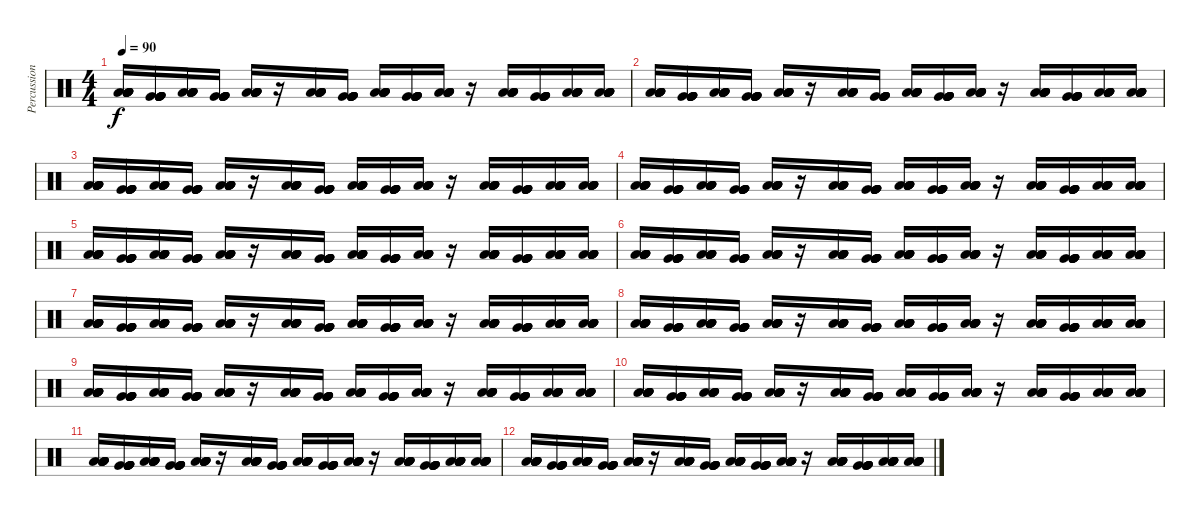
\track ("Percussion 2" "Percussion") {instrument percussion}
\staff {score}
\articulation defaults
\ts (4 4)
\tempo 90
\clef neutral
\ks c
("Low Floor Tom (hit)" "Low Floor Tom (hit)" "Low Floor Tom (hit)" "Low Floor Tom (hit)" "Low Floor Tom (hit)" "Low Floor Tom (hit)").16{dy f} ("Very Low Tom (hit)" "Very Low Tom (hit)" "Very Low Tom (hit)" "Very Low Tom (hit)" "Very Low Tom (hit)" "Very Low Tom (hit)").16 ("Low Floor Tom (hit)" "Low Floor Tom (hit)" "Low Floor Tom (hit)" "Low Floor Tom (hit)" "Low Floor Tom (hit)" "Low Floor Tom (hit)").16 ("Very Low Tom (hit)" "Very Low Tom (hit)" "Very Low Tom (hit)" "Very Low Tom (hit)" "Very Low Tom (hit)" "Very Low Tom (hit)").16 ("Low Floor Tom (hit)" "Low Floor Tom (hit)" "Low Floor Tom (hit)" "Low Floor Tom (hit)" "Low Floor Tom (hit)" "Low Floor Tom (hit)").16 r.16 ("Low Floor Tom (hit)" "Low Floor Tom (hit)" "Low Floor Tom (hit)" "Low Floor Tom (hit)" "Low Floor Tom (hit)" "Low Floor Tom (hit)").16 ("Very Low Tom (hit)" "Very Low Tom (hit)" "Very Low Tom (hit)" "Very Low Tom (hit)" "Very Low Tom (hit)" "Very Low Tom (hit)").16 ("Low Floor Tom (hit)" "Low Floor Tom (hit)" "Low Floor Tom (hit)" "Low Floor Tom (hit)" "Low Floor Tom (hit)" "Low Floor Tom (hit)").16 ("Very Low Tom (hit)" "Very Low Tom (hit)" "Very Low Tom (hit)" "Very Low Tom (hit)" "Very Low Tom (hit)" "Very Low Tom (hit)").16 ("Low Floor Tom (hit)" "Low Floor Tom (hit)" "Low Floor Tom (hit)" "Low Floor Tom (hit)" "Low Floor Tom (hit)" "Low Floor Tom (hit)").16 r.16 ("Low Floor Tom (hit)" "Low Floor Tom (hit)" "Low Floor Tom (hit)" "Low Floor Tom (hit)" "Low Floor Tom (hit)" "Low Floor Tom (hit)").16 ("Very Low Tom (hit)" "Very Low Tom (hit)" "Very Low Tom (hit)" "Very Low Tom (hit)" "Very Low Tom (hit)" "Very Low Tom (hit)").16 ("Low Floor Tom (hit)" "Low Floor Tom (hit)" "Low Floor Tom (hit)" "Low Floor Tom (hit)" "Low Floor Tom (hit)" "Low Floor Tom (hit)").16 ("Low Floor Tom (hit)" "Low Floor Tom (hit)" "Low Floor Tom (hit)" "Low Floor Tom (hit)" "Low Floor Tom (hit)" "Low Floor Tom (hit)").16 |
("Low Floor Tom (hit)" "Low Floor Tom (hit)" "Low Floor Tom (hit)" "Low Floor Tom (hit)" "Low Floor Tom (hit)" "Low Floor Tom (hit)").16 ("Very Low Tom (hit)" "Very Low Tom (hit)" "Very Low Tom (hit)" "Very Low Tom (hit)" "Very Low Tom (hit)" "Very Low Tom (hit)").16 ("Low Floor Tom (hit)" "Low Floor Tom (hit)" "Low Floor Tom (hit)" "Low Floor Tom (hit)" "Low Floor Tom (hit)" "Low Floor Tom (hit)").16 ("Very Low Tom (hit)" "Very Low Tom (hit)" "Very Low Tom (hit)" "Very Low Tom (hit)" "Very Low Tom (hit)" "Very Low Tom (hit)").16 ("Low Floor Tom (hit)" "Low Floor Tom (hit)" "Low Floor Tom (hit)" "Low Floor Tom (hit)" "Low Floor Tom (hit)" "Low Floor Tom (hit)").16 r.16 ("Low Floor Tom (hit)" "Low Floor Tom (hit)" "Low Floor Tom (hit)" "Low Floor Tom (hit)" "Low Floor Tom (hit)" "Low Floor Tom (hit)").16 ("Very Low Tom (hit)" "Very Low Tom (hit)" "Very Low Tom (hit)" "Very Low Tom (hit)" "Very Low Tom (hit)" "Very Low Tom (hit)").16 ("Low Floor Tom (hit)" "Low Floor Tom (hit)" "Low Floor Tom (hit)" "Low Floor Tom (hit)" "Low Floor Tom (hit)" "Low Floor Tom (hit)").16 ("Very Low Tom (hit)" "Very Low Tom (hit)" "Very Low Tom (hit)" "Very Low Tom (hit)" "Very Low Tom (hit)" "Very Low Tom (hit)").16 ("Low Floor Tom (hit)" "Low Floor Tom (hit)" "Low Floor Tom (hit)" "Low Floor Tom (hit)" "Low Floor Tom (hit)" "Low Floor Tom (hit)").16 r.16 ("Low Floor Tom (hit)" "Low Floor Tom (hit)" "Low Floor Tom (hit)" "Low Floor Tom (hit)" "Low Floor Tom (hit)" "Low Floor Tom (hit)").16 ("Very Low Tom (hit)" "Very Low Tom (hit)" "Very Low Tom (hit)" "Very Low Tom (hit)" "Very Low Tom (hit)" "Very Low Tom (hit)").16 ("Low Floor Tom (hit)" "Low Floor Tom (hit)" "Low Floor Tom (hit)" "Low Floor Tom (hit)" "Low Floor Tom (hit)" "Low Floor Tom (hit)").16 ("Low Floor Tom (hit)" "Low Floor Tom (hit)" "Low Floor Tom (hit)" "Low Floor Tom (hit)" "Low Floor Tom (hit)" "Low Floor Tom (hit)").16 |
("Low Floor Tom (hit)" "Low Floor Tom (hit)" "Low Floor Tom (hit)" "Low Floor Tom (hit)" "Low Floor Tom (hit)" "Low Floor Tom (hit)").16 ("Very Low Tom (hit)" "Very Low Tom (hit)" "Very Low Tom (hit)" "Very Low Tom (hit)" "Very Low Tom (hit)" "Very Low Tom (hit)").16 ("Low Floor Tom (hit)" "Low Floor Tom (hit)" "Low Floor Tom (hit)" "Low Floor Tom (hit)" "Low Floor Tom (hit)" "Low Floor Tom (hit)").16 ("Very Low Tom (hit)" "Very Low Tom (hit)" "Very Low Tom (hit)" "Very Low Tom (hit)" "Very Low Tom (hit)" "Very Low Tom (hit)").16 ("Low Floor Tom (hit)" "Low Floor Tom (hit)" "Low Floor Tom (hit)" "Low Floor Tom (hit)" "Low Floor Tom (hit)" "Low Floor Tom (hit)").16 r.16 ("Low Floor Tom (hit)" "Low Floor Tom (hit)" "Low Floor Tom (hit)" "Low Floor Tom (hit)" "Low Floor Tom (hit)" "Low Floor Tom (hit)").16 ("Very Low Tom (hit)" "Very Low Tom (hit)" "Very Low Tom (hit)" "Very Low Tom (hit)" "Very Low Tom (hit)" "Very Low Tom (hit)").16 ("Low Floor Tom (hit)" "Low Floor Tom (hit)" "Low Floor Tom (hit)" "Low Floor Tom (hit)" "Low Floor Tom (hit)" "Low Floor Tom (hit)").16 ("Very Low Tom (hit)" "Very Low Tom (hit)" "Very Low Tom (hit)" "Very Low Tom (hit)" "Very Low Tom (hit)" "Very Low Tom (hit)").16 ("Low Floor Tom (hit)" "Low Floor Tom (hit)" "Low Floor Tom (hit)" "Low Floor Tom (hit)" "Low Floor Tom (hit)" "Low Floor Tom (hit)").16 r.16 ("Low Floor Tom (hit)" "Low Floor Tom (hit)" "Low Floor Tom (hit)" "Low Floor Tom (hit)" "Low Floor Tom (hit)" "Low Floor Tom (hit)").16 ("Very Low Tom (hit)" "Very Low Tom (hit)" "Very Low Tom (hit)" "Very Low Tom (hit)" "Very Low Tom (hit)" "Very Low Tom (hit)").16 ("Low Floor Tom (hit)" "Low Floor Tom (hit)" "Low Floor Tom (hit)" "Low Floor Tom (hit)" "Low Floor Tom (hit)" "Low Floor Tom (hit)").16 ("Low Floor Tom (hit)" "Low Floor Tom (hit)" "Low Floor Tom (hit)" "Low Floor Tom (hit)" "Low Floor Tom (hit)" "Low Floor Tom (hit)").16 |
("Low Floor Tom (hit)" "Low Floor Tom (hit)" "Low Floor Tom (hit)" "Low Floor Tom (hit)" "Low Floor Tom (hit)" "Low Floor Tom (hit)").16 ("Very Low Tom (hit)" "Very Low Tom (hit)" "Very Low Tom (hit)" "Very Low Tom (hit)" "Very Low Tom (hit)" "Very Low Tom (hit)").16 ("Low Floor Tom (hit)" "Low Floor Tom (hit)" "Low Floor Tom (hit)" "Low Floor Tom (hit)" "Low Floor Tom (hit)" "Low Floor Tom (hit)").16 ("Very Low Tom (hit)" "Very Low Tom (hit)" "Very Low Tom (hit)" "Very Low Tom (hit)" "Very Low Tom (hit)" "Very Low Tom (hit)").16 ("Low Floor Tom (hit)" "Low Floor Tom (hit)" "Low Floor Tom (hit)" "Low Floor Tom (hit)" "Low Floor Tom (hit)" "Low Floor Tom (hit)").16 r.16 ("Low Floor Tom (hit)" "Low Floor Tom (hit)" "Low Floor Tom (hit)" "Low Floor Tom (hit)" "Low Floor Tom (hit)" "Low Floor Tom (hit)").16 ("Very Low Tom (hit)" "Very Low Tom (hit)" "Very Low Tom (hit)" "Very Low Tom (hit)" "Very Low Tom (hit)" "Very Low Tom (hit)").16 ("Low Floor Tom (hit)" "Low Floor Tom (hit)" "Low Floor Tom (hit)" "Low Floor Tom (hit)" "Low Floor Tom (hit)" "Low Floor Tom (hit)").16 ("Very Low Tom (hit)" "Very Low Tom (hit)" "Very Low Tom (hit)" "Very Low Tom (hit)" "Very Low Tom (hit)" "Very Low Tom (hit)").16 ("Low Floor Tom (hit)" "Low Floor Tom (hit)" "Low Floor Tom (hit)" "Low Floor Tom (hit)" "Low Floor Tom (hit)" "Low Floor Tom (hit)").16 r.16 ("Low Floor Tom (hit)" "Low Floor Tom (hit)" "Low Floor Tom (hit)" "Low Floor Tom (hit)" "Low Floor Tom (hit)" "Low Floor Tom (hit)").16 ("Very Low Tom (hit)" "Very Low Tom (hit)" "Very Low Tom (hit)" "Very Low Tom (hit)" "Very Low Tom (hit)" "Very Low Tom (hit)").16 ("Low Floor Tom (hit)" "Low Floor Tom (hit)" "Low Floor Tom (hit)" "Low Floor Tom (hit)" "Low Floor Tom (hit)" "Low Floor Tom (hit)").16 ("Low Floor Tom (hit)" "Low Floor Tom (hit)" "Low Floor Tom (hit)" "Low Floor Tom (hit)" "Low Floor Tom (hit)" "Low Floor Tom (hit)").16 |
("Low Floor Tom (hit)" "Low Floor Tom (hit)" "Low Floor Tom (hit)" "Low Floor Tom (hit)" "Low Floor Tom (hit)" "Low Floor Tom (hit)").16 ("Very Low Tom (hit)" "Very Low Tom (hit)" "Very Low Tom (hit)" "Very Low Tom (hit)" "Very Low Tom (hit)" "Very Low Tom (hit)").16 ("Low Floor Tom (hit)" "Low Floor Tom (hit)" "Low Floor Tom (hit)" "Low Floor Tom (hit)" "Low Floor Tom (hit)" "Low Floor Tom (hit)").16 ("Very Low Tom (hit)" "Very Low Tom (hit)" "Very Low Tom (hit)" "Very Low Tom (hit)" "Very Low Tom (hit)" "Very Low Tom (hit)").16 ("Low Floor Tom (hit)" "Low Floor Tom (hit)" "Low Floor Tom (hit)" "Low Floor Tom (hit)" "Low Floor Tom (hit)" "Low Floor Tom (hit)").16 r.16 ("Low Floor Tom (hit)" "Low Floor Tom (hit)" "Low Floor Tom (hit)" "Low Floor Tom (hit)" "Low Floor Tom (hit)" "Low Floor Tom (hit)").16 ("Very Low Tom (hit)" "Very Low Tom (hit)" "Very Low Tom (hit)" "Very Low Tom (hit)" "Very Low Tom (hit)" "Very Low Tom (hit)").16 ("Low Floor Tom (hit)" "Low Floor Tom (hit)" "Low Floor Tom (hit)" "Low Floor Tom (hit)" "Low Floor Tom (hit)" "Low Floor Tom (hit)").16 ("Very Low Tom (hit)" "Very Low Tom (hit)" "Very Low Tom (hit)" "Very Low Tom (hit)" "Very Low Tom (hit)" "Very Low Tom (hit)").16 ("Low Floor Tom (hit)" "Low Floor Tom (hit)" "Low Floor Tom (hit)" "Low Floor Tom (hit)" "Low Floor Tom (hit)" "Low Floor Tom (hit)").16 r.16 ("Low Floor Tom (hit)" "Low Floor Tom (hit)" "Low Floor Tom (hit)" "Low Floor Tom (hit)" "Low Floor Tom (hit)" "Low Floor Tom (hit)").16 ("Very Low Tom (hit)" "Very Low Tom (hit)" "Very Low Tom (hit)" "Very Low Tom (hit)" "Very Low Tom (hit)" "Very Low Tom (hit)").16 ("Low Floor Tom (hit)" "Low Floor Tom (hit)" "Low Floor Tom (hit)" "Low Floor Tom (hit)" "Low Floor Tom (hit)" "Low Floor Tom (hit)").16 ("Low Floor Tom (hit)" "Low Floor Tom (hit)" "Low Floor Tom (hit)" "Low Floor Tom (hit)" "Low Floor Tom (hit)" "Low Floor Tom (hit)").16 |
("Low Floor Tom (hit)" "Low Floor Tom (hit)" "Low Floor Tom (hit)" "Low Floor Tom (hit)" "Low Floor Tom (hit)" "Low Floor Tom (hit)").16 ("Very Low Tom (hit)" "Very Low Tom (hit)" "Very Low Tom (hit)" "Very Low Tom (hit)" "Very Low Tom (hit)" "Very Low Tom (hit)").16 ("Low Floor Tom (hit)" "Low Floor Tom (hit)" "Low Floor Tom (hit)" "Low Floor Tom (hit)" "Low Floor Tom (hit)" "Low Floor Tom (hit)").16 ("Very Low Tom (hit)" "Very Low Tom (hit)" "Very Low Tom (hit)" "Very Low Tom (hit)" "Very Low Tom (hit)" "Very Low Tom (hit)").16 ("Low Floor Tom (hit)" "Low Floor Tom (hit)" "Low Floor Tom (hit)" "Low Floor Tom (hit)" "Low Floor Tom (hit)" "Low Floor Tom (hit)").16 r.16 ("Low Floor Tom (hit)" "Low Floor Tom (hit)" "Low Floor Tom (hit)" "Low Floor Tom (hit)" "Low Floor Tom (hit)" "Low Floor Tom (hit)").16 ("Very Low Tom (hit)" "Very Low Tom (hit)" "Very Low Tom (hit)" "Very Low Tom (hit)" "Very Low Tom (hit)" "Very Low Tom (hit)").16 ("Low Floor Tom (hit)" "Low Floor Tom (hit)" "Low Floor Tom (hit)" "Low Floor Tom (hit)" "Low Floor Tom (hit)" "Low Floor Tom (hit)").16 ("Very Low Tom (hit)" "Very Low Tom (hit)" "Very Low Tom (hit)" "Very Low Tom (hit)" "Very Low Tom (hit)" "Very Low Tom (hit)").16 ("Low Floor Tom (hit)" "Low Floor Tom (hit)" "Low Floor Tom (hit)" "Low Floor Tom (hit)" "Low Floor Tom (hit)" "Low Floor Tom (hit)").16 r.16 ("Low Floor Tom (hit)" "Low Floor Tom (hit)" "Low Floor Tom (hit)" "Low Floor Tom (hit)" "Low Floor Tom (hit)" "Low Floor Tom (hit)").16 ("Very Low Tom (hit)" "Very Low Tom (hit)" "Very Low Tom (hit)" "Very Low Tom (hit)" "Very Low Tom (hit)" "Very Low Tom (hit)").16 ("Low Floor Tom (hit)" "Low Floor Tom (hit)" "Low Floor Tom (hit)" "Low Floor Tom (hit)" "Low Floor Tom (hit)" "Low Floor Tom (hit)").16 ("Low Floor Tom (hit)" "Low Floor Tom (hit)" "Low Floor Tom (hit)" "Low Floor Tom (hit)" "Low Floor Tom (hit)" "Low Floor Tom (hit)").16 |
("Low Floor Tom (hit)" "Low Floor Tom (hit)" "Low Floor Tom (hit)" "Low Floor Tom (hit)" "Low Floor Tom (hit)" "Low Floor Tom (hit)").16 ("Very Low Tom (hit)" "Very Low Tom (hit)" "Very Low Tom (hit)" "Very Low Tom (hit)" "Very Low Tom (hit)" "Very Low Tom (hit)").16 ("Low Floor Tom (hit)" "Low Floor Tom (hit)" "Low Floor Tom (hit)" "Low Floor Tom (hit)" "Low Floor Tom (hit)" "Low Floor Tom (hit)").16 ("Very Low Tom (hit)" "Very Low Tom (hit)" "Very Low Tom (hit)" "Very Low Tom (hit)" "Very Low Tom (hit)" "Very Low Tom (hit)").16 ("Low Floor Tom (hit)" "Low Floor Tom (hit)" "Low Floor Tom (hit)" "Low Floor Tom (hit)" "Low Floor Tom (hit)" "Low Floor Tom (hit)").16 r.16 ("Low Floor Tom (hit)" "Low Floor Tom (hit)" "Low Floor Tom (hit)" "Low Floor Tom (hit)" "Low Floor Tom (hit)" "Low Floor Tom (hit)").16 ("Very Low Tom (hit)" "Very Low Tom (hit)" "Very Low Tom (hit)" "Very Low Tom (hit)" "Very Low Tom (hit)" "Very Low Tom (hit)").16 ("Low Floor Tom (hit)" "Low Floor Tom (hit)" "Low Floor Tom (hit)" "Low Floor Tom (hit)" "Low Floor Tom (hit)" "Low Floor Tom (hit)").16 ("Very Low Tom (hit)" "Very Low Tom (hit)" "Very Low Tom (hit)" "Very Low Tom (hit)" "Very Low Tom (hit)" "Very Low Tom (hit)").16 ("Low Floor Tom (hit)" "Low Floor Tom (hit)" "Low Floor Tom (hit)" "Low Floor Tom (hit)" "Low Floor Tom (hit)" "Low Floor Tom (hit)").16 r.16 ("Low Floor Tom (hit)" "Low Floor Tom (hit)" "Low Floor Tom (hit)" "Low Floor Tom (hit)" "Low Floor Tom (hit)" "Low Floor Tom (hit)").16 ("Very Low Tom (hit)" "Very Low Tom (hit)" "Very Low Tom (hit)" "Very Low Tom (hit)" "Very Low Tom (hit)" "Very Low Tom (hit)").16 ("Low Floor Tom (hit)" "Low Floor Tom (hit)" "Low Floor Tom (hit)" "Low Floor Tom (hit)" "Low Floor Tom (hit)" "Low Floor Tom (hit)").16 ("Low Floor Tom (hit)" "Low Floor Tom (hit)" "Low Floor Tom (hit)" "Low Floor Tom (hit)" "Low Floor Tom (hit)" "Low Floor Tom (hit)").16 |
("Low Floor Tom (hit)" "Low Floor Tom (hit)" "Low Floor Tom (hit)" "Low Floor Tom (hit)" "Low Floor Tom (hit)" "Low Floor Tom (hit)").16 ("Very Low Tom (hit)" "Very Low Tom (hit)" "Very Low Tom (hit)" "Very Low Tom (hit)" "Very Low Tom (hit)" "Very Low Tom (hit)").16 ("Low Floor Tom (hit)" "Low Floor Tom (hit)" "Low Floor Tom (hit)" "Low Floor Tom (hit)" "Low Floor Tom (hit)" "Low Floor Tom (hit)").16 ("Very Low Tom (hit)" "Very Low Tom (hit)" "Very Low Tom (hit)" "Very Low Tom (hit)" "Very Low Tom (hit)" "Very Low Tom (hit)").16 ("Low Floor Tom (hit)" "Low Floor Tom (hit)" "Low Floor Tom (hit)" "Low Floor Tom (hit)" "Low Floor Tom (hit)" "Low Floor Tom (hit)").16 r.16 ("Low Floor Tom (hit)" "Low Floor Tom (hit)" "Low Floor Tom (hit)" "Low Floor Tom (hit)" "Low Floor Tom (hit)" "Low Floor Tom (hit)").16 ("Very Low Tom (hit)" "Very Low Tom (hit)" "Very Low Tom (hit)" "Very Low Tom (hit)" "Very Low Tom (hit)" "Very Low Tom (hit)").16 ("Low Floor Tom (hit)" "Low Floor Tom (hit)" "Low Floor Tom (hit)" "Low Floor Tom (hit)" "Low Floor Tom (hit)" "Low Floor Tom (hit)").16 ("Very Low Tom (hit)" "Very Low Tom (hit)" "Very Low Tom (hit)" "Very Low Tom (hit)" "Very Low Tom (hit)" "Very Low Tom (hit)").16 ("Low Floor Tom (hit)" "Low Floor Tom (hit)" "Low Floor Tom (hit)" "Low Floor Tom (hit)" "Low Floor Tom (hit)" "Low Floor Tom (hit)").16 r.16 ("Low Floor Tom (hit)" "Low Floor Tom (hit)" "Low Floor Tom (hit)" "Low Floor Tom (hit)" "Low Floor Tom (hit)" "Low Floor Tom (hit)").16 ("Very Low Tom (hit)" "Very Low Tom (hit)" "Very Low Tom (hit)" "Very Low Tom (hit)" "Very Low Tom (hit)" "Very Low Tom (hit)").16 ("Low Floor Tom (hit)" "Low Floor Tom (hit)" "Low Floor Tom (hit)" "Low Floor Tom (hit)" "Low Floor Tom (hit)" "Low Floor Tom (hit)").16 ("Low Floor Tom (hit)" "Low Floor Tom (hit)" "Low Floor Tom (hit)" "Low Floor Tom (hit)" "Low Floor Tom (hit)" "Low Floor Tom (hit)").16 |
("Low Floor Tom (hit)" "Low Floor Tom (hit)" "Low Floor Tom (hit)" "Low Floor Tom (hit)" "Low Floor Tom (hit)" "Low Floor Tom (hit)").16 ("Very Low Tom (hit)" "Very Low Tom (hit)" "Very Low Tom (hit)" "Very Low Tom (hit)" "Very Low Tom (hit)" "Very Low Tom (hit)").16 ("Low Floor Tom (hit)" "Low Floor Tom (hit)" "Low Floor Tom (hit)" "Low Floor Tom (hit)" "Low Floor Tom (hit)" "Low Floor Tom (hit)").16 ("Very Low Tom (hit)" "Very Low Tom (hit)" "Very Low Tom (hit)" "Very Low Tom (hit)" "Very Low Tom (hit)" "Very Low Tom (hit)").16 ("Low Floor Tom (hit)" "Low Floor Tom (hit)" "Low Floor Tom (hit)" "Low Floor Tom (hit)" "Low Floor Tom (hit)" "Low Floor Tom (hit)").16 r.16 ("Low Floor Tom (hit)" "Low Floor Tom (hit)" "Low Floor Tom (hit)" "Low Floor Tom (hit)" "Low Floor Tom (hit)" "Low Floor Tom (hit)").16 ("Very Low Tom (hit)" "Very Low Tom (hit)" "Very Low Tom (hit)" "Very Low Tom (hit)" "Very Low Tom (hit)" "Very Low Tom (hit)").16 ("Low Floor Tom (hit)" "Low Floor Tom (hit)" "Low Floor Tom (hit)" "Low Floor Tom (hit)" "Low Floor Tom (hit)" "Low Floor Tom (hit)").16 ("Very Low Tom (hit)" "Very Low Tom (hit)" "Very Low Tom (hit)" "Very Low Tom (hit)" "Very Low Tom (hit)" "Very Low Tom (hit)").16 ("Low Floor Tom (hit)" "Low Floor Tom (hit)" "Low Floor Tom (hit)" "Low Floor Tom (hit)" "Low Floor Tom (hit)" "Low Floor Tom (hit)").16 r.16 ("Low Floor Tom (hit)" "Low Floor Tom (hit)" "Low Floor Tom (hit)" "Low Floor Tom (hit)" "Low Floor Tom (hit)" "Low Floor Tom (hit)").16 ("Very Low Tom (hit)" "Very Low Tom (hit)" "Very Low Tom (hit)" "Very Low Tom (hit)" "Very Low Tom (hit)" "Very Low Tom (hit)").16 ("Low Floor Tom (hit)" "Low Floor Tom (hit)" "Low Floor Tom (hit)" "Low Floor Tom (hit)" "Low Floor Tom (hit)" "Low Floor Tom (hit)").16 ("Low Floor Tom (hit)" "Low Floor Tom (hit)" "Low Floor Tom (hit)" "Low Floor Tom (hit)" "Low Floor Tom (hit)" "Low Floor Tom (hit)").16 |
("Low Floor Tom (hit)" "Low Floor Tom (hit)" "Low Floor Tom (hit)" "Low Floor Tom (hit)" "Low Floor Tom (hit)" "Low Floor Tom (hit)").16 ("Very Low Tom (hit)" "Very Low Tom (hit)" "Very Low Tom (hit)" "Very Low Tom (hit)" "Very Low Tom (hit)" "Very Low Tom (hit)").16 ("Low Floor Tom (hit)" "Low Floor Tom (hit)" "Low Floor Tom (hit)" "Low Floor Tom (hit)" "Low Floor Tom (hit)" "Low Floor Tom (hit)").16 ("Very Low Tom (hit)" "Very Low Tom (hit)" "Very Low Tom (hit)" "Very Low Tom (hit)" "Very Low Tom (hit)" "Very Low Tom (hit)").16 ("Low Floor Tom (hit)" "Low Floor Tom (hit)" "Low Floor Tom (hit)" "Low Floor Tom (hit)" "Low Floor Tom (hit)" "Low Floor Tom (hit)").16 r.16 ("Low Floor Tom (hit)" "Low Floor Tom (hit)" "Low Floor Tom (hit)" "Low Floor Tom (hit)" "Low Floor Tom (hit)" "Low Floor Tom (hit)").16 ("Very Low Tom (hit)" "Very Low Tom (hit)" "Very Low Tom (hit)" "Very Low Tom (hit)" "Very Low Tom (hit)" "Very Low Tom (hit)").16 ("Low Floor Tom (hit)" "Low Floor Tom (hit)" "Low Floor Tom (hit)" "Low Floor Tom (hit)" "Low Floor Tom (hit)" "Low Floor Tom (hit)").16 ("Very Low Tom (hit)" "Very Low Tom (hit)" "Very Low Tom (hit)" "Very Low Tom (hit)" "Very Low Tom (hit)" "Very Low Tom (hit)").16 ("Low Floor Tom (hit)" "Low Floor Tom (hit)" "Low Floor Tom (hit)" "Low Floor Tom (hit)" "Low Floor Tom (hit)" "Low Floor Tom (hit)").16 r.16 ("Low Floor Tom (hit)" "Low Floor Tom (hit)" "Low Floor Tom (hit)" "Low Floor Tom (hit)" "Low Floor Tom (hit)" "Low Floor Tom (hit)").16 ("Very Low Tom (hit)" "Very Low Tom (hit)" "Very Low Tom (hit)" "Very Low Tom (hit)" "Very Low Tom (hit)" "Very Low Tom (hit)").16 ("Low Floor Tom (hit)" "Low Floor Tom (hit)" "Low Floor Tom (hit)" "Low Floor Tom (hit)" "Low Floor Tom (hit)" "Low Floor Tom (hit)").16 ("Low Floor Tom (hit)" "Low Floor Tom (hit)" "Low Floor Tom (hit)" "Low Floor Tom (hit)" "Low Floor Tom (hit)" "Low Floor Tom (hit)").16 |
("Low Floor Tom (hit)" "Low Floor Tom (hit)" "Low Floor Tom (hit)" "Low Floor Tom (hit)" "Low Floor Tom (hit)" "Low Floor Tom (hit)").16 ("Very Low Tom (hit)" "Very Low Tom (hit)" "Very Low Tom (hit)" "Very Low Tom (hit)" "Very Low Tom (hit)" "Very Low Tom (hit)").16 ("Low Floor Tom (hit)" "Low Floor Tom (hit)" "Low Floor Tom (hit)" "Low Floor Tom (hit)" "Low Floor Tom (hit)" "Low Floor Tom (hit)").16 ("Very Low Tom (hit)" "Very Low Tom (hit)" "Very Low Tom (hit)" "Very Low Tom (hit)" "Very Low Tom (hit)" "Very Low Tom (hit)").16 ("Low Floor Tom (hit)" "Low Floor Tom (hit)" "Low Floor Tom (hit)" "Low Floor Tom (hit)" "Low Floor Tom (hit)" "Low Floor Tom (hit)").16 r.16 ("Low Floor Tom (hit)" "Low Floor Tom (hit)" "Low Floor Tom (hit)" "Low Floor Tom (hit)" "Low Floor Tom (hit)" "Low Floor Tom (hit)").16 ("Very Low Tom (hit)" "Very Low Tom (hit)" "Very Low Tom (hit)" "Very Low Tom (hit)" "Very Low Tom (hit)" "Very Low Tom (hit)").16 ("Low Floor Tom (hit)" "Low Floor Tom (hit)" "Low Floor Tom (hit)" "Low Floor Tom (hit)" "Low Floor Tom (hit)" "Low Floor Tom (hit)").16 ("Very Low Tom (hit)" "Very Low Tom (hit)" "Very Low Tom (hit)" "Very Low Tom (hit)" "Very Low Tom (hit)" "Very Low Tom (hit)").16 ("Low Floor Tom (hit)" "Low Floor Tom (hit)" "Low Floor Tom (hit)" "Low Floor Tom (hit)" "Low Floor Tom (hit)" "Low Floor Tom (hit)").16 r.16 ("Low Floor Tom (hit)" "Low Floor Tom (hit)" "Low Floor Tom (hit)" "Low Floor Tom (hit)" "Low Floor Tom (hit)" "Low Floor Tom (hit)").16 ("Very Low Tom (hit)" "Very Low Tom (hit)" "Very Low Tom (hit)" "Very Low Tom (hit)" "Very Low Tom (hit)" "Very Low Tom (hit)").16 ("Low Floor Tom (hit)" "Low Floor Tom (hit)" "Low Floor Tom (hit)" "Low Floor Tom (hit)" "Low Floor Tom (hit)" "Low Floor Tom (hit)").16 ("Low Floor Tom (hit)" "Low Floor Tom (hit)" "Low Floor Tom (hit)" "Low Floor Tom (hit)" "Low Floor Tom (hit)" "Low Floor Tom (hit)").16 |
("Low Floor Tom (hit)" "Low Floor Tom (hit)" "Low Floor Tom (hit)" "Low Floor Tom (hit)" "Low Floor Tom (hit)" "Low Floor Tom (hit)").16 ("Very Low Tom (hit)" "Very Low Tom (hit)" "Very Low Tom (hit)" "Very Low Tom (hit)" "Very Low Tom (hit)" "Very Low Tom (hit)").16 ("Low Floor Tom (hit)" "Low Floor Tom (hit)" "Low Floor Tom (hit)" "Low Floor Tom (hit)" "Low Floor Tom (hit)" "Low Floor Tom (hit)").16 ("Very Low Tom (hit)" "Very Low Tom (hit)" "Very Low Tom (hit)" "Very Low Tom (hit)" "Very Low Tom (hit)" "Very Low Tom (hit)").16 ("Low Floor Tom (hit)" "Low Floor Tom (hit)" "Low Floor Tom (hit)" "Low Floor Tom (hit)" "Low Floor Tom (hit)" "Low Floor Tom (hit)").16 r.16 ("Low Floor Tom (hit)" "Low Floor Tom (hit)" "Low Floor Tom (hit)" "Low Floor Tom (hit)" "Low Floor Tom (hit)" "Low Floor Tom (hit)").16 ("Very Low Tom (hit)" "Very Low Tom (hit)" "Very Low Tom (hit)" "Very Low Tom (hit)" "Very Low Tom (hit)" "Very Low Tom (hit)").16 ("Low Floor Tom (hit)" "Low Floor Tom (hit)" "Low Floor Tom (hit)" "Low Floor Tom (hit)" "Low Floor Tom (hit)" "Low Floor Tom (hit)").16 ("Very Low Tom (hit)" "Very Low Tom (hit)" "Very Low Tom (hit)" "Very Low Tom (hit)" "Very Low Tom (hit)" "Very Low Tom (hit)").16 ("Low Floor Tom (hit)" "Low Floor Tom (hit)" "Low Floor Tom (hit)" "Low Floor Tom (hit)" "Low Floor Tom (hit)" "Low Floor Tom (hit)").16 r.16 ("Low Floor Tom (hit)" "Low Floor Tom (hit)" "Low Floor Tom (hit)" "Low Floor Tom (hit)" "Low Floor Tom (hit)" "Low Floor Tom (hit)").16 ("Very Low Tom (hit)" "Very Low Tom (hit)" "Very Low Tom (hit)" "Very Low Tom (hit)" "Very Low Tom (hit)" "Very Low Tom (hit)").16 ("Low Floor Tom (hit)" "Low Floor Tom (hit)" "Low Floor Tom (hit)" "Low Floor Tom (hit)" "Low Floor Tom (hit)" "Low Floor Tom (hit)").16 ("Low Floor Tom (hit)" "Low Floor Tom (hit)" "Low Floor Tom (hit)" "Low Floor Tom (hit)" "Low Floor Tom (hit)" "Low Floor Tom (hit)").16
